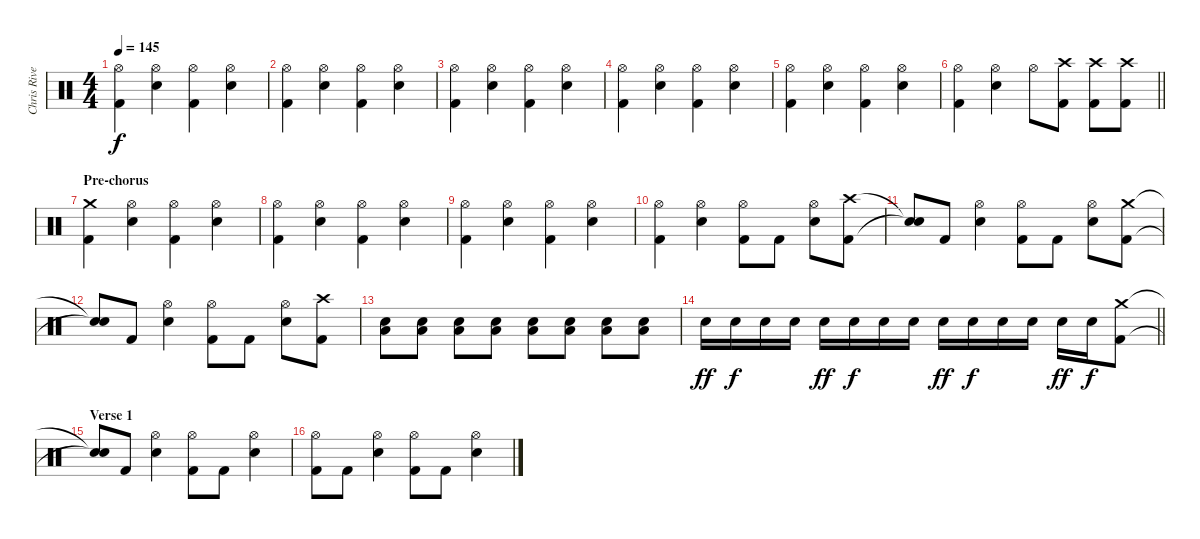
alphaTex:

\track ("Chris Rivers" "Chris Rive") {instrument percussion}
\staff {score}
\articulation defaults
\ts (4 4)
\tempo 145
\clef neutral
\ks c
("Hi-Hat (open)" "Kick (hit) 2").4{dy f} ("Hi-Hat (open)" "Electric Snare (hit)").4 ("Hi-Hat (open)" "Kick (hit) 2").4 ("Hi-Hat (open)" "Electric Snare (hit)").4 |
("Hi-Hat (open)" "Kick (hit) 2").4 ("Hi-Hat (open)" "Electric Snare (hit)").4 ("Hi-Hat (open)" "Kick (hit) 2").4 ("Hi-Hat (open)" "Electric Snare (hit)").4 |
("Hi-Hat (open)" "Kick (hit) 2").4 ("Hi-Hat (open)" "Electric Snare (hit)").4 ("Hi-Hat (open)" "Kick (hit) 2").4 ("Hi-Hat (open)" "Electric Snare (hit)").4 |
("Hi-Hat (open)" "Kick (hit) 2").4 ("Hi-Hat (open)" "Electric Snare (hit)").4 ("Hi-Hat (open)" "Kick (hit) 2").4 ("Hi-Hat (open)" "Electric Snare (hit)").4 |
("Hi-Hat (open)" "Kick (hit) 2").4 ("Hi-Hat (open)" "Electric Snare (hit)").4 ("Hi-Hat (open)" "Kick (hit) 2").4 ("Hi-Hat (open)" "Electric Snare (hit)").4 |
\barLineRight lightlight
("Hi-Hat (open)" "Kick (hit) 2").4 ("Hi-Hat (open)" "Electric Snare (hit)").4 "Hi-Hat (open)".8 ("Crash high (hit)" "Kick (hit) 2").8 ("Crash high (hit)" "Kick (hit) 2").8 ("Crash high (hit)" "Kick (hit) 2").8 |
\section ("" "Pre-chorus")
("Crash medium (hit)" "Kick (hit) 2").4 ("Hi-Hat (open)" "Electric Snare (hit)").4 ("Hi-Hat (open)" "Kick (hit) 2").4 ("Hi-Hat (open)" "Electric Snare (hit)").4 |
("Hi-Hat (open)" "Kick (hit) 2").4 ("Hi-Hat (open)" "Electric Snare (hit)").4 ("Hi-Hat (open)" "Kick (hit) 2").4 ("Hi-Hat (open)" "Electric Snare (hit)").4 |
("Hi-Hat (open)" "Kick (hit) 2").4 ("Hi-Hat (open)" "Electric Snare (hit)").4 ("Hi-Hat (open)" "Kick (hit) 2").4 ("Hi-Hat (open)" "Electric Snare (hit)").4 |
("Hi-Hat (open)" "Kick (hit) 2").4 ("Hi-Hat (open)" "Electric Snare (hit)").4 ("Hi-Hat (open)" "Kick (hit) 2").8 "Kick (hit) 2".8 ("Hi-Hat (open)" "Electric Snare (hit)").8 ("Crash high (hit)" "Kick (hit) 2").8 |
("Snare (hit)"{t} "Snare (hit)"{t}).8 "Kick (hit) 2".8 ("Hi-Hat (open)" "Electric Snare (hit)").4 ("Hi-Hat (open)" "Kick (hit) 2").8 "Kick (hit) 2".8 ("Hi-Hat (open)" "Electric Snare (hit)").8 ("Crash medium (hit)" "Kick (hit) 2").8 |
("Snare (hit)"{t} "Snare (hit)"{t}).8 "Kick (hit) 2".8 ("Hi-Hat (open)" "Electric Snare (hit)").4 ("Hi-Hat (open)" "Kick (hit) 2").8 "Kick (hit) 2".8 ("Hi-Hat (open)" "Electric Snare (hit)").8 ("Crash high (hit)" "Kick (hit) 2").8 |
("Low Floor Tom (hit)" "Snare (hit) 2").8 ("Low Floor Tom (hit)" "Snare (hit) 2").8 ("Low Floor Tom (hit)" "Snare (hit) 2").8 ("Low Floor Tom (hit)" "Snare (hit) 2").8 ("Low Floor Tom (hit)" "Snare (hit) 2").8 ("Low Floor Tom (hit)" "Snare (hit) 2").8 ("Low Floor Tom (hit)" "Snare (hit) 2").8 ("Low Floor Tom (hit)" "Snare (hit) 2").8 |
\barLineRight lightlight "Electric Snare (hit)".16{dy ff} "Electric Snare (hit)".16{dy f} "Electric Snare (hit)".16 "Electric Snare (hit)".16 "Electric Snare (hit)".16{dy ff} "Electric Snare (hit)".16{dy f} "Electric Snare (hit)".16 "Electric Snare (hit)".16 "Electric Snare (hit)".16{dy ff} "Electric Snare (hit)".16{dy f} "Electric Snare (hit)".16 "Electric Snare (hit)".16 "Electric Snare (hit)".16{dy ff} "Electric Snare (hit)".16{dy f}
("Crash medium (hit)" "Kick (hit) 2").8 |
\section ("" "Verse 1")
("Snare (hit)"{t} "Snare (hit)"{t}).8 "Kick (hit) 2".8 ("Hi-Hat (open)" "Electric Snare (hit)").4 ("Hi-Hat (open)" "Kick (hit) 2").8 "Kick (hit) 2".8 ("Hi-Hat (open)" "Electric Snare (hit)").4 |
("Hi-Hat (open)" "Kick (hit) 2").8 "Kick (hit) 2".8 ("Hi-Hat (open)" "Electric Snare (hit)").4 ("Hi-Hat (open)" "Kick (hit) 2").8 "Kick (hit) 2".8 ("Hi-Hat (open)" "Electric Snare (hit)").4
